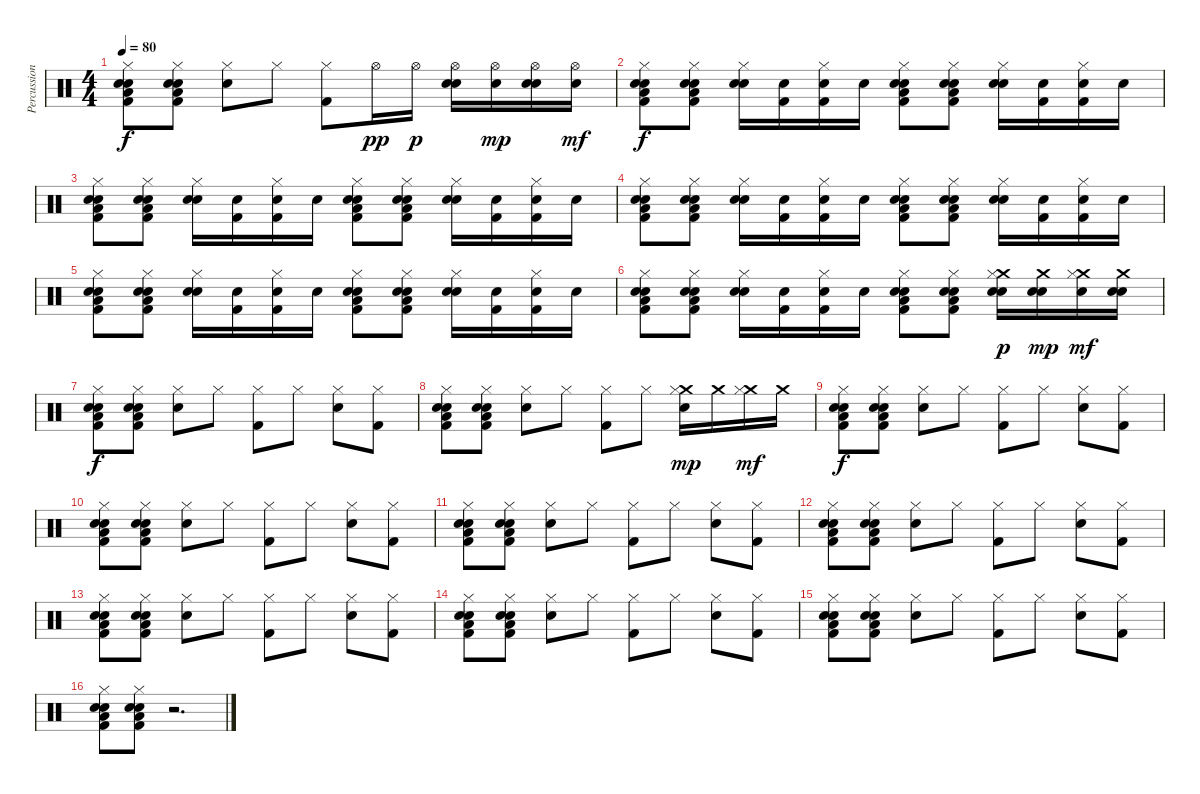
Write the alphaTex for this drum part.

\track ("Percussion" "Percussion") {instrument percussion}
\staff {score}
\articulation defaults
\ts (4 4)
\tempo 80
\clef neutral
\ks c
("Kick (hit) 2" "Low Floor Tom (hit)" "Electric Snare (hit)" "Hand Clap (hit)" "Hi-Hat (closed)").8{dy f} ("Kick (hit) 2" "Low Floor Tom (hit)" "Electric Snare (hit)" "Hand Clap (hit)" "Hi-Hat (closed)").8 ("Hand Clap (hit)" "Hi-Hat (closed)").8 "Hi-Hat (closed)".8 ("Kick (hit) 2" "Hi-Hat (closed)").8 "Hi-Hat (open)".16{dy pp} "Hi-Hat (open)".16{dy p} ("Hand Clap (hit)" "Electric Snare (hit)" "Hi-Hat (open)").16 ("Electric Snare (hit)" "Hi-Hat (open)").16{dy mp} ("Hand Clap (hit)" "Electric Snare (hit)" "Hi-Hat (open)").16 ("Electric Snare (hit)" "Hi-Hat (open)").16{dy mf} |
("Kick (hit) 2" "Low Floor Tom (hit)" "Electric Snare (hit)" "Hand Clap (hit)" "Hi-Hat (closed)").8{dy f} ("Kick (hit) 2" "Low Floor Tom (hit)" "Electric Snare (hit)" "Hand Clap (hit)" "Hi-Hat (closed)").8 ("Hand Clap (hit)" "Snare (hit) 2" "Hi-Hat (closed)").16 ("Kick (hit) 2" "Hand Clap (hit)").16 ("Kick (hit) 2" "Electric Snare (hit)" "Hi-Hat (closed)").16 "Snare (hit) 2".16 ("Kick (hit) 2" "Low Floor Tom (hit)" "Electric Snare (hit)" "Hand Clap (hit)" "Hi-Hat (closed)").8 ("Kick (hit) 2" "Low Floor Tom (hit)" "Electric Snare (hit)" "Hand Clap (hit)" "Hi-Hat (closed)").8 ("Hand Clap (hit)" "Snare (hit) 2" "Hi-Hat (closed)").16 ("Kick (hit) 2" "Hand Clap (hit)").16 ("Kick (hit) 2" "Electric Snare (hit)" "Hi-Hat (closed)").16 "Snare (hit) 2".16 |
("Kick (hit) 2" "Low Floor Tom (hit)" "Electric Snare (hit)" "Hand Clap (hit)" "Hi-Hat (closed)").8 ("Kick (hit) 2" "Low Floor Tom (hit)" "Electric Snare (hit)" "Hand Clap (hit)" "Hi-Hat (closed)").8 ("Hand Clap (hit)" "Snare (hit) 2" "Hi-Hat (closed)").16 ("Kick (hit) 2" "Hand Clap (hit)").16 ("Kick (hit) 2" "Electric Snare (hit)" "Hi-Hat (closed)").16 "Snare (hit) 2".16 ("Kick (hit) 2" "Low Floor Tom (hit)" "Electric Snare (hit)" "Hand Clap (hit)" "Hi-Hat (closed)").8 ("Kick (hit) 2" "Low Floor Tom (hit)" "Electric Snare (hit)" "Hand Clap (hit)" "Hi-Hat (closed)").8 ("Hand Clap (hit)" "Snare (hit) 2" "Hi-Hat (closed)").16 ("Kick (hit) 2" "Hand Clap (hit)").16 ("Kick (hit) 2" "Electric Snare (hit)" "Hi-Hat (closed)").16 "Snare (hit) 2".16 |
("Kick (hit) 2" "Low Floor Tom (hit)" "Electric Snare (hit)" "Hand Clap (hit)" "Hi-Hat (closed)").8 ("Kick (hit) 2" "Low Floor Tom (hit)" "Electric Snare (hit)" "Hand Clap (hit)" "Hi-Hat (closed)").8 ("Hand Clap (hit)" "Snare (hit) 2" "Hi-Hat (closed)").16 ("Kick (hit) 2" "Hand Clap (hit)").16 ("Kick (hit) 2" "Electric Snare (hit)" "Hi-Hat (closed)").16 "Snare (hit) 2".16 ("Kick (hit) 2" "Low Floor Tom (hit)" "Electric Snare (hit)" "Hand Clap (hit)" "Hi-Hat (closed)").8 ("Kick (hit) 2" "Low Floor Tom (hit)" "Electric Snare (hit)" "Hand Clap (hit)" "Hi-Hat (closed)").8 ("Hand Clap (hit)" "Snare (hit) 2" "Hi-Hat (closed)").16 ("Kick (hit) 2" "Hand Clap (hit)").16 ("Kick (hit) 2" "Electric Snare (hit)" "Hi-Hat (closed)").16 "Snare (hit) 2".16 |
("Kick (hit) 2" "Low Floor Tom (hit)" "Electric Snare (hit)" "Hand Clap (hit)" "Hi-Hat (closed)").8 ("Kick (hit) 2" "Low Floor Tom (hit)" "Electric Snare (hit)" "Hand Clap (hit)" "Hi-Hat (closed)").8 ("Hand Clap (hit)" "Snare (hit) 2" "Hi-Hat (closed)").16 ("Kick (hit) 2" "Hand Clap (hit)").16 ("Kick (hit) 2" "Electric Snare (hit)" "Hi-Hat (closed)").16 "Snare (hit) 2".16 ("Kick (hit) 2" "Low Floor Tom (hit)" "Electric Snare (hit)" "Hand Clap (hit)" "Hi-Hat (closed)").8 ("Kick (hit) 2" "Low Floor Tom (hit)" "Electric Snare (hit)" "Hand Clap (hit)" "Hi-Hat (closed)").8 ("Hand Clap (hit)" "Snare (hit) 2" "Hi-Hat (closed)").16 ("Kick (hit) 2" "Hand Clap (hit)").16 ("Kick (hit) 2" "Electric Snare (hit)" "Hi-Hat (closed)").16 "Snare (hit) 2".16 |
("Kick (hit) 2" "Low Floor Tom (hit)" "Electric Snare (hit)" "Hand Clap (hit)" "Hi-Hat (closed)").8 ("Kick (hit) 2" "Low Floor Tom (hit)" "Electric Snare (hit)" "Hand Clap (hit)" "Hi-Hat (closed)").8 ("Hand Clap (hit)" "Snare (hit) 2" "Hi-Hat (closed)").16 ("Kick (hit) 2" "Hand Clap (hit)").16 ("Kick (hit) 2" "Electric Snare (hit)" "Hi-Hat (closed)").16 "Snare (hit) 2".16 ("Kick (hit) 2" "Low Floor Tom (hit)" "Electric Snare (hit)" "Hand Clap (hit)" "Hi-Hat (closed)").8 ("Kick (hit) 2" "Low Floor Tom (hit)" "Electric Snare (hit)" "Hand Clap (hit)" "Hi-Hat (closed)").8 ("Hand Clap (hit)" "Snare (hit) 2" "Crash medium (hit)" "Hi-Hat (closed)").16{dy p} ("Hand Clap (hit)" "Electric Snare (hit)" "Crash medium (hit)").16{dy mp} ("Snare (hit) 2" "Crash medium (hit)" "Hi-Hat (closed)").16{dy mf} ("Snare (hit) 2" "Electric Snare (hit)" "Crash medium (hit)").16 |
("Kick (hit) 2" "Low Floor Tom (hit)" "Electric Snare (hit)" "Hand Clap (hit)" "Hi-Hat (closed)").8{dy f} ("Kick (hit) 2" "Low Floor Tom (hit)" "Electric Snare (hit)" "Hand Clap (hit)" "Hi-Hat (closed)").8 ("Hand Clap (hit)" "Hi-Hat (closed)").8 "Hi-Hat (closed)".8 ("Kick (hit) 2" "Hi-Hat (closed)").8 "Hi-Hat (closed)".8 ("Hand Clap (hit)" "Hi-Hat (closed)").8 ("Kick (hit) 2" "Hi-Hat (closed)").8 |
("Kick (hit) 2" "Low Floor Tom (hit)" "Electric Snare (hit)" "Hand Clap (hit)" "Hi-Hat (closed)").8 ("Kick (hit) 2" "Low Floor Tom (hit)" "Electric Snare (hit)" "Hand Clap (hit)" "Hi-Hat (closed)").8 ("Hand Clap (hit)" "Hi-Hat (closed)").8 "Hi-Hat (closed)".8 ("Kick (hit) 2" "Hi-Hat (closed)").8 "Hi-Hat (closed)".8 ("Hand Clap (hit)" "Crash medium (hit)" "Hi-Hat (closed)").16{dy mp} "Crash medium (hit)".16 ("Crash medium (hit)" "Hi-Hat (closed)").16{dy mf} "Crash medium (hit)".16 |
("Kick (hit) 2" "Low Floor Tom (hit)" "Electric Snare (hit)" "Hand Clap (hit)" "Hi-Hat (closed)").8{dy f} ("Kick (hit) 2" "Low Floor Tom (hit)" "Electric Snare (hit)" "Hand Clap (hit)" "Hi-Hat (closed)").8 ("Hand Clap (hit)" "Hi-Hat (closed)").8 "Hi-Hat (closed)".8 ("Kick (hit) 2" "Hi-Hat (closed)").8 "Hi-Hat (closed)".8 ("Hand Clap (hit)" "Hi-Hat (closed)").8 ("Kick (hit) 2" "Hi-Hat (closed)").8 |
("Kick (hit) 2" "Low Floor Tom (hit)" "Electric Snare (hit)" "Hand Clap (hit)" "Hi-Hat (closed)").8 ("Kick (hit) 2" "Low Floor Tom (hit)" "Electric Snare (hit)" "Hand Clap (hit)" "Hi-Hat (closed)").8 ("Hand Clap (hit)" "Hi-Hat (closed)").8 "Hi-Hat (closed)".8 ("Kick (hit) 2" "Hi-Hat (closed)").8 "Hi-Hat (closed)".8 ("Hand Clap (hit)" "Hi-Hat (closed)").8 ("Kick (hit) 2" "Hi-Hat (closed)").8 |
("Kick (hit) 2" "Low Floor Tom (hit)" "Electric Snare (hit)" "Hand Clap (hit)" "Hi-Hat (closed)").8 ("Kick (hit) 2" "Low Floor Tom (hit)" "Electric Snare (hit)" "Hand Clap (hit)" "Hi-Hat (closed)").8 ("Hand Clap (hit)" "Hi-Hat (closed)").8 "Hi-Hat (closed)".8 ("Kick (hit) 2" "Hi-Hat (closed)").8 "Hi-Hat (closed)".8 ("Hand Clap (hit)" "Hi-Hat (closed)").8 ("Kick (hit) 2" "Hi-Hat (closed)").8 |
("Kick (hit) 2" "Low Floor Tom (hit)" "Electric Snare (hit)" "Hand Clap (hit)" "Hi-Hat (closed)").8 ("Kick (hit) 2" "Low Floor Tom (hit)" "Electric Snare (hit)" "Hand Clap (hit)" "Hi-Hat (closed)").8 ("Hand Clap (hit)" "Hi-Hat (closed)").8 "Hi-Hat (closed)".8 ("Kick (hit) 2" "Hi-Hat (closed)").8 "Hi-Hat (closed)".8 ("Hand Clap (hit)" "Hi-Hat (closed)").8 ("Kick (hit) 2" "Hi-Hat (closed)").8 |
("Kick (hit) 2" "Low Floor Tom (hit)" "Electric Snare (hit)" "Hand Clap (hit)" "Hi-Hat (closed)").8 ("Kick (hit) 2" "Low Floor Tom (hit)" "Electric Snare (hit)" "Hand Clap (hit)" "Hi-Hat (closed)").8 ("Hand Clap (hit)" "Hi-Hat (closed)").8 "Hi-Hat (closed)".8 ("Kick (hit) 2" "Hi-Hat (closed)").8 "Hi-Hat (closed)".8 ("Hand Clap (hit)" "Hi-Hat (closed)").8 ("Kick (hit) 2" "Hi-Hat (closed)").8 |
("Kick (hit) 2" "Low Floor Tom (hit)" "Electric Snare (hit)" "Hand Clap (hit)" "Hi-Hat (closed)").8 ("Kick (hit) 2" "Low Floor Tom (hit)" "Electric Snare (hit)" "Hand Clap (hit)" "Hi-Hat (closed)").8 ("Hand Clap (hit)" "Hi-Hat (closed)").8 "Hi-Hat (closed)".8 ("Kick (hit) 2" "Hi-Hat (closed)").8 "Hi-Hat (closed)".8 ("Hand Clap (hit)" "Hi-Hat (closed)").8 ("Kick (hit) 2" "Hi-Hat (closed)").8 |
("Kick (hit) 2" "Low Floor Tom (hit)" "Electric Snare (hit)" "Hand Clap (hit)" "Hi-Hat (closed)").8 ("Kick (hit) 2" "Low Floor Tom (hit)" "Electric Snare (hit)" "Hand Clap (hit)" "Hi-Hat (closed)").8 ("Hand Clap (hit)" "Hi-Hat (closed)").8 "Hi-Hat (closed)".8 ("Kick (hit) 2" "Hi-Hat (closed)").8 "Hi-Hat (closed)".8 ("Hand Clap (hit)" "Hi-Hat (closed)").8 ("Kick (hit) 2" "Hi-Hat (closed)").8 |
("Kick (hit) 2" "Low Floor Tom (hit)" "Electric Snare (hit)" "Hand Clap (hit)" "Hi-Hat (closed)").8 ("Kick (hit) 2" "Low Floor Tom (hit)" "Electric Snare (hit)" "Hand Clap (hit)" "Hi-Hat (closed)").8 r.2{d}
